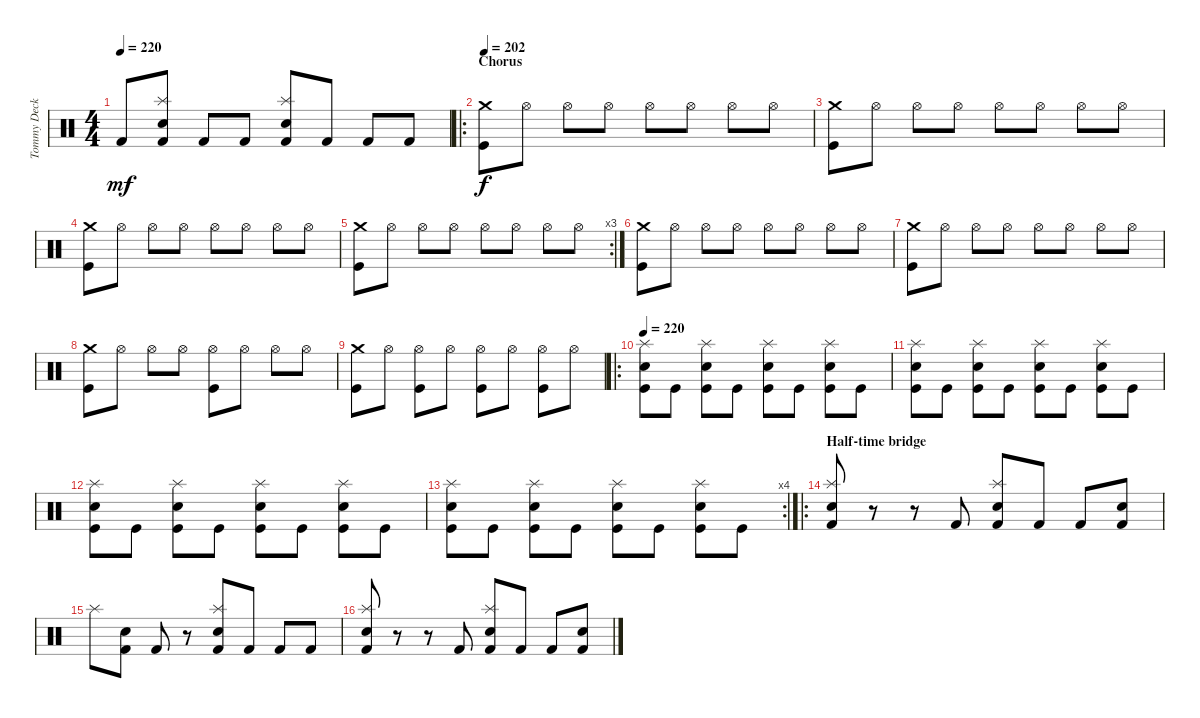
\track ("Tommy Decker" "Tommy Deck") {instrument percussion}
\staff {score}
\articulation defaults
\ts (4 4)
\tempo 220
\clef neutral
\ks c "Kick (hit) 2".8{dy mf}
("Splash (hit)" "Electric Snare (hit)" "Kick (hit) 2").8 "Kick (hit) 2".8 "Kick (hit) 2".8 ("Splash (hit)" "Electric Snare (hit)" "Kick (hit) 2").8 "Kick (hit) 2".8 "Kick (hit) 2".8 "Kick (hit) 2".8 |
\ro
\section ("" "Chorus")
\tempo 202
("Crash medium (hit)" "Kick (hit)").8{dy f} "Hi-Hat (open)".8 "Hi-Hat (open)".8 "Hi-Hat (open)".8 "Hi-Hat (open)".8 "Hi-Hat (open)".8 "Hi-Hat (open)".8 "Hi-Hat (open)".8 |
("Crash medium (hit)" "Kick (hit)").8 "Hi-Hat (open)".8 "Hi-Hat (open)".8 "Hi-Hat (open)".8 "Hi-Hat (open)".8 "Hi-Hat (open)".8 "Hi-Hat (open)".8 "Hi-Hat (open)".8 |
("Crash medium (hit)" "Kick (hit)").8 "Hi-Hat (open)".8 "Hi-Hat (open)".8 "Hi-Hat (open)".8 "Hi-Hat (open)".8 "Hi-Hat (open)".8 "Hi-Hat (open)".8 "Hi-Hat (open)".8 |
\rc 3
("Crash medium (hit)" "Kick (hit)").8 "Hi-Hat (open)".8 "Hi-Hat (open)".8 "Hi-Hat (open)".8 "Hi-Hat (open)".8 "Hi-Hat (open)".8 "Hi-Hat (open)".8 "Hi-Hat (open)".8 |
("Crash medium (hit)" "Kick (hit)").8 "Hi-Hat (open)".8 "Hi-Hat (open)".8 "Hi-Hat (open)".8 "Hi-Hat (open)".8 "Hi-Hat (open)".8 "Hi-Hat (open)".8 "Hi-Hat (open)".8 |
("Crash medium (hit)" "Kick (hit)").8 "Hi-Hat (open)".8 "Hi-Hat (open)".8 "Hi-Hat (open)".8 "Hi-Hat (open)".8 "Hi-Hat (open)".8 "Hi-Hat (open)".8 "Hi-Hat (open)".8 |
("Crash medium (hit)" "Kick (hit)").8 "Hi-Hat (open)".8 "Hi-Hat (open)".8 "Hi-Hat (open)".8 ("Hi-Hat (open)" "Kick (hit)").8 "Hi-Hat (open)".8 "Hi-Hat (open)".8 "Hi-Hat (open)".8 |
("Crash medium (hit)" "Kick (hit)").8 "Hi-Hat (open)".8 ("Hi-Hat (open)" "Kick (hit)").8 "Hi-Hat (open)".8 ("Hi-Hat (open)" "Kick (hit)").8 "Hi-Hat (open)".8 ("Hi-Hat (open)" "Kick (hit)").8 "Hi-Hat (open)".8 |
\ro
\tempo 220
("Splash (hit)" "Electric Snare (hit)" "Kick (hit)").8 "Kick (hit)".8 ("Splash (hit)" "Electric Snare (hit)" "Kick (hit)").8 "Kick (hit)".8 ("Splash (hit)" "Electric Snare (hit)" "Kick (hit)").8 "Kick (hit)".8 ("Splash (hit)" "Electric Snare (hit)" "Kick (hit)").8 "Kick (hit)".8 |
("Splash (hit)" "Electric Snare (hit)" "Kick (hit)").8 "Kick (hit)".8 ("Splash (hit)" "Electric Snare (hit)" "Kick (hit)").8 "Kick (hit)".8 ("Splash (hit)" "Electric Snare (hit)" "Kick (hit)").8 "Kick (hit)".8 ("Splash (hit)" "Electric Snare (hit)" "Kick (hit)").8 "Kick (hit)".8 |
("Splash (hit)" "Electric Snare (hit)" "Kick (hit)").8 "Kick (hit)".8 ("Splash (hit)" "Electric Snare (hit)" "Kick (hit)").8 "Kick (hit)".8 ("Splash (hit)" "Electric Snare (hit)" "Kick (hit)").8 "Kick (hit)".8 ("Splash (hit)" "Electric Snare (hit)" "Kick (hit)").8 "Kick (hit)".8 |
\rc 4
("Splash (hit)" "Electric Snare (hit)" "Kick (hit)").8 "Kick (hit)".8 ("Splash (hit)" "Electric Snare (hit)" "Kick (hit)").8 "Kick (hit)".8 ("Splash (hit)" "Electric Snare (hit)" "Kick (hit)").8 "Kick (hit)".8 ("Splash (hit)" "Electric Snare (hit)" "Kick (hit)").8 "Kick (hit)".8 |
\ro
\section ("" "Half-time bridge")
("Splash (hit)" "Electric Snare (hit)" "Kick (hit) 2").8 r.8 r.8 "Kick (hit) 2".8 ("Splash (hit)" "Electric Snare (hit)" "Kick (hit) 2").8 "Kick (hit) 2".8 "Kick (hit) 2".8 ("Electric Snare (hit)" "Kick (hit) 2").8 |
"Splash (hit)".8 ("Electric Snare (hit)" "Kick (hit) 2").8 "Kick (hit) 2".8 r.8 ("Splash (hit)" "Electric Snare (hit)" "Kick (hit) 2").8 "Kick (hit) 2".8 "Kick (hit) 2".8 "Kick (hit) 2".8 |
("Splash (hit)" "Electric Snare (hit)" "Kick (hit) 2").8 r.8 r.8 "Kick (hit) 2".8 ("Splash (hit)" "Electric Snare (hit)" "Kick (hit) 2").8 "Kick (hit) 2".8 "Kick (hit) 2".8 ("Electric Snare (hit)" "Kick (hit) 2").8
